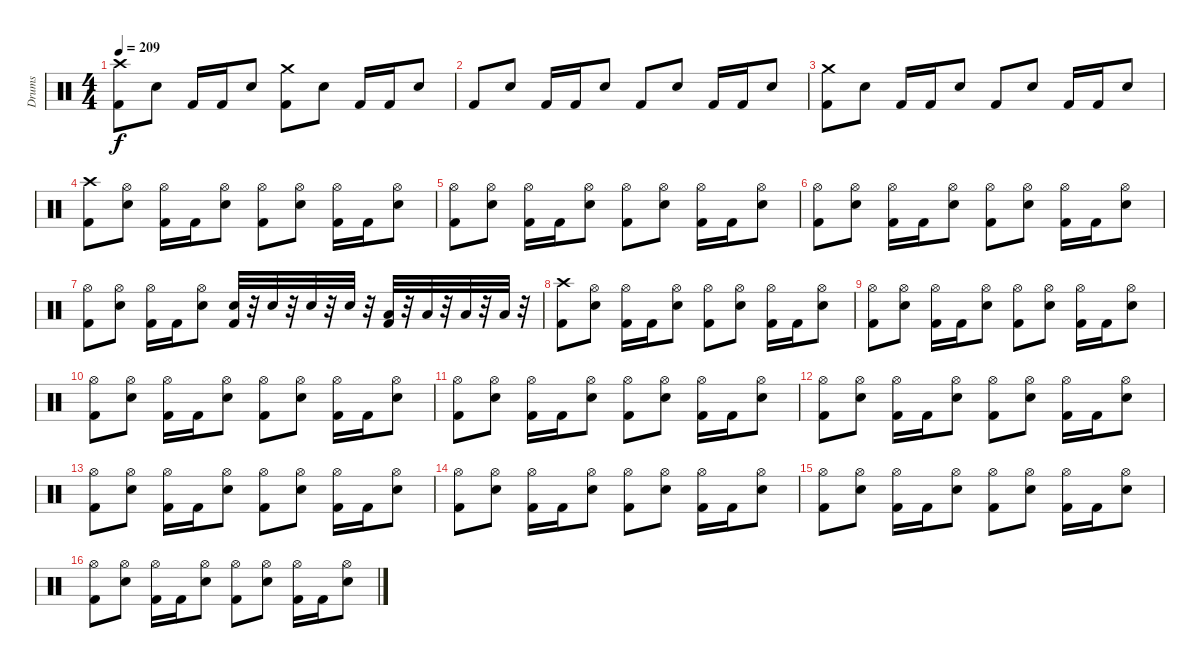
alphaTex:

\track ("Drums" "Drums") {instrument percussion}
\staff {score}
\articulation defaults
\ts (4 4)
\tempo 209
\clef neutral
\ks c
("Kick (hit) 2" "Crash high (hit)").8{dy f} "Electric Snare (hit)".8 "Kick (hit) 2".16 "Kick (hit) 2".16 "Electric Snare (hit)".8 ("Kick (hit) 2" "Crash medium (hit)").8 "Electric Snare (hit)".8 "Kick (hit) 2".16 "Kick (hit) 2".16 "Electric Snare (hit)".8 |
"Kick (hit) 2".8 "Electric Snare (hit)".8 "Kick (hit) 2".16 "Kick (hit) 2".16 "Electric Snare (hit)".8 "Kick (hit) 2".8 "Electric Snare (hit)".8 "Kick (hit) 2".16 "Kick (hit) 2".16 "Electric Snare (hit)".8 |
("Kick (hit) 2" "Crash medium (hit)").8 "Electric Snare (hit)".8 "Kick (hit) 2".16 "Kick (hit) 2".16 "Electric Snare (hit)".8 "Kick (hit) 2".8 "Electric Snare (hit)".8 "Kick (hit) 2".16 "Kick (hit) 2".16 "Electric Snare (hit)".8 |
("Kick (hit) 2" "Crash high (hit)").8 ("Electric Snare (hit)" "Hi-Hat (open)").8 ("Kick (hit) 2" "Hi-Hat (open)").16 "Kick (hit) 2".16 ("Electric Snare (hit)" "Hi-Hat (open)").8 ("Kick (hit) 2" "Hi-Hat (open)").8 ("Electric Snare (hit)" "Hi-Hat (open)").8 ("Kick (hit) 2" "Hi-Hat (open)").16 "Kick (hit) 2".16 ("Electric Snare (hit)" "Hi-Hat (open)").8 |
("Kick (hit) 2" "Hi-Hat (open)").8 ("Electric Snare (hit)" "Hi-Hat (open)").8 ("Kick (hit) 2" "Hi-Hat (open)").16 "Kick (hit) 2".16 ("Electric Snare (hit)" "Hi-Hat (open)").8 ("Kick (hit) 2" "Hi-Hat (open)").8 ("Electric Snare (hit)" "Hi-Hat (open)").8 ("Kick (hit) 2" "Hi-Hat (open)").16 "Kick (hit) 2".16 ("Electric Snare (hit)" "Hi-Hat (open)").8 |
("Kick (hit) 2" "Hi-Hat (open)").8 ("Electric Snare (hit)" "Hi-Hat (open)").8 ("Kick (hit) 2" "Hi-Hat (open)").16 "Kick (hit) 2".16 ("Electric Snare (hit)" "Hi-Hat (open)").8 ("Kick (hit) 2" "Hi-Hat (open)").8 ("Electric Snare (hit)" "Hi-Hat (open)").8 ("Kick (hit) 2" "Hi-Hat (open)").16 "Kick (hit) 2".16 ("Electric Snare (hit)" "Hi-Hat (open)").8 |
("Kick (hit) 2" "Hi-Hat (open)").8 ("Electric Snare (hit)" "Hi-Hat (open)").8 ("Kick (hit) 2" "Hi-Hat (open)").16 "Kick (hit) 2".16 ("Electric Snare (hit)" "Hi-Hat (open)").8 ("Kick (hit) 2" "Electric Snare (hit)").32 r.32 "Electric Snare (hit)".32 r.32 "Electric Snare (hit)".32 r.32 "Electric Snare (hit)".32 r.32 ("Kick (hit) 2" "Low Tom (hit)").32 r.32 "Low Tom (hit)".32 r.32 "Low Floor Tom (hit)".32 r.32 "Low Floor Tom (hit)".32 r.32 |
("Crash high (hit)" "Kick (hit) 2").8 ("Hi-Hat (open)" "Electric Snare (hit)").8 ("Kick (hit) 2" "Hi-Hat (open)").16 "Kick (hit) 2".16 ("Hi-Hat (open)" "Electric Snare (hit)").8 ("Kick (hit) 2" "Hi-Hat (open)").8 ("Hi-Hat (open)" "Electric Snare (hit)").8 ("Kick (hit) 2" "Hi-Hat (open)").16 "Kick (hit) 2".16 ("Hi-Hat (open)" "Electric Snare (hit)").8 |
("Kick (hit) 2" "Hi-Hat (open)").8 ("Hi-Hat (open)" "Electric Snare (hit)").8 ("Kick (hit) 2" "Hi-Hat (open)").16 "Kick (hit) 2".16 ("Hi-Hat (open)" "Electric Snare (hit)").8 ("Kick (hit) 2" "Hi-Hat (open)").8 ("Hi-Hat (open)" "Electric Snare (hit)").8 ("Kick (hit) 2" "Hi-Hat (open)").16 "Kick (hit) 2".16 ("Hi-Hat (open)" "Electric Snare (hit)").8 |
("Kick (hit) 2" "Hi-Hat (open)").8 ("Hi-Hat (open)" "Electric Snare (hit)").8 ("Kick (hit) 2" "Hi-Hat (open)").16 "Kick (hit) 2".16 ("Hi-Hat (open)" "Electric Snare (hit)").8 ("Kick (hit) 2" "Hi-Hat (open)").8 ("Hi-Hat (open)" "Electric Snare (hit)").8 ("Kick (hit) 2" "Hi-Hat (open)").16 "Kick (hit) 2".16 ("Hi-Hat (open)" "Electric Snare (hit)").8 |
("Kick (hit) 2" "Hi-Hat (open)").8 ("Hi-Hat (open)" "Electric Snare (hit)").8 ("Kick (hit) 2" "Hi-Hat (open)").16 "Kick (hit) 2".16 ("Hi-Hat (open)" "Electric Snare (hit)").8 ("Kick (hit) 2" "Hi-Hat (open)").8 ("Hi-Hat (open)" "Electric Snare (hit)").8 ("Kick (hit) 2" "Hi-Hat (open)").16 "Kick (hit) 2".16 ("Hi-Hat (open)" "Electric Snare (hit)").8 |
("Kick (hit) 2" "Hi-Hat (open)").8 ("Hi-Hat (open)" "Electric Snare (hit)").8 ("Kick (hit) 2" "Hi-Hat (open)").16 "Kick (hit) 2".16 ("Hi-Hat (open)" "Electric Snare (hit)").8 ("Kick (hit) 2" "Hi-Hat (open)").8 ("Hi-Hat (open)" "Electric Snare (hit)").8 ("Kick (hit) 2" "Hi-Hat (open)").16 "Kick (hit) 2".16 ("Hi-Hat (open)" "Electric Snare (hit)").8 |
("Kick (hit) 2" "Hi-Hat (open)").8 ("Hi-Hat (open)" "Electric Snare (hit)").8 ("Kick (hit) 2" "Hi-Hat (open)").16 "Kick (hit) 2".16 ("Hi-Hat (open)" "Electric Snare (hit)").8 ("Kick (hit) 2" "Hi-Hat (open)").8 ("Hi-Hat (open)" "Electric Snare (hit)").8 ("Kick (hit) 2" "Hi-Hat (open)").16 "Kick (hit) 2".16 ("Hi-Hat (open)" "Electric Snare (hit)").8 |
("Kick (hit) 2" "Hi-Hat (open)").8 ("Hi-Hat (open)" "Electric Snare (hit)").8 ("Kick (hit) 2" "Hi-Hat (open)").16 "Kick (hit) 2".16 ("Hi-Hat (open)" "Electric Snare (hit)").8 ("Kick (hit) 2" "Hi-Hat (open)").8 ("Hi-Hat (open)" "Electric Snare (hit)").8 ("Kick (hit) 2" "Hi-Hat (open)").16 "Kick (hit) 2".16 ("Hi-Hat (open)" "Electric Snare (hit)").8 |
("Kick (hit) 2" "Hi-Hat (open)").8 ("Hi-Hat (open)" "Electric Snare (hit)").8 ("Kick (hit) 2" "Hi-Hat (open)").16 "Kick (hit) 2".16 ("Hi-Hat (open)" "Electric Snare (hit)").8 ("Kick (hit) 2" "Hi-Hat (open)").8 ("Hi-Hat (open)" "Electric Snare (hit)").8 ("Kick (hit) 2" "Hi-Hat (open)").16 "Kick (hit) 2".16 ("Hi-Hat (open)" "Electric Snare (hit)").8 |
("Kick (hit) 2" "Hi-Hat (open)").8 ("Hi-Hat (open)" "Electric Snare (hit)").8 ("Kick (hit) 2" "Hi-Hat (open)").16 "Kick (hit) 2".16 ("Hi-Hat (open)" "Electric Snare (hit)").8 ("Kick (hit) 2" "Hi-Hat (open)").8 ("Hi-Hat (open)" "Electric Snare (hit)").8 ("Kick (hit) 2" "Hi-Hat (open)").16 "Kick (hit) 2".16 ("Hi-Hat (open)" "Electric Snare (hit)").8
